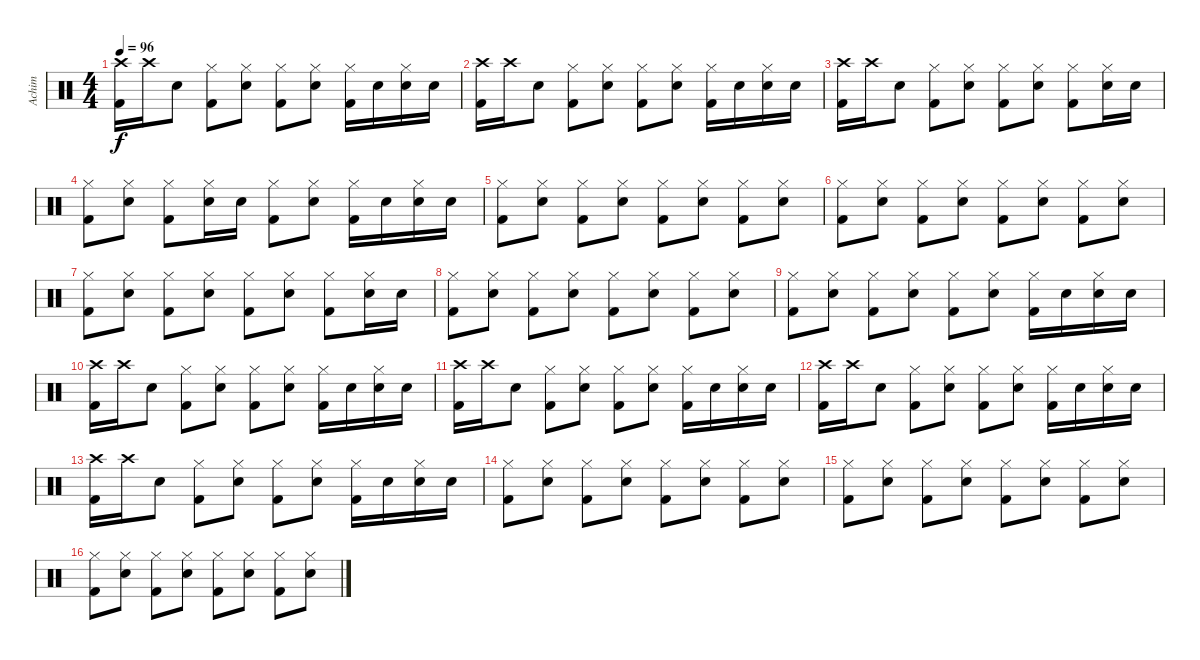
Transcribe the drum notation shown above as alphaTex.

\track ("Achim" "Achim") {instrument percussion}
\staff {score}
\articulation defaults
\ts (4 4)
\tempo 96
\clef neutral
\ks c
("Crash high (hit)" "Kick (hit) 2").16{dy f} "Crash high (hit)".16 "Snare (hit) 2".8 ("Hi-Hat (closed)" "Kick (hit) 2").8 ("Hi-Hat (closed)" "Snare (hit) 2").8 ("Hi-Hat (closed)" "Kick (hit) 2").8 ("Hi-Hat (closed)" "Snare (hit) 2").8 ("Hi-Hat (closed)" "Kick (hit) 2").16 "Snare (hit) 2".16 ("Hi-Hat (closed)" "Snare (hit) 2").16 "Snare (hit) 2".16 |
("Crash high (hit)" "Kick (hit) 2").16 "Crash high (hit)".16 "Snare (hit) 2".8 ("Hi-Hat (closed)" "Kick (hit) 2").8 ("Hi-Hat (closed)" "Snare (hit) 2").8 ("Hi-Hat (closed)" "Kick (hit) 2").8 ("Hi-Hat (closed)" "Snare (hit) 2").8 ("Hi-Hat (closed)" "Kick (hit) 2").16 "Snare (hit) 2".16 ("Hi-Hat (closed)" "Snare (hit) 2").16 "Snare (hit) 2".16 |
("Crash high (hit)" "Kick (hit) 2").16 "Crash high (hit)".16 "Snare (hit) 2".8 ("Hi-Hat (closed)" "Kick (hit) 2").8 ("Hi-Hat (closed)" "Snare (hit) 2").8 ("Hi-Hat (closed)" "Kick (hit) 2").8 ("Hi-Hat (closed)" "Snare (hit) 2").8 ("Hi-Hat (closed)" "Kick (hit) 2").8 ("Hi-Hat (closed)" "Snare (hit) 2").16 "Snare (hit) 2".16 |
("Hi-Hat (closed)" "Kick (hit) 2").8 ("Hi-Hat (closed)" "Snare (hit) 2").8 ("Hi-Hat (closed)" "Kick (hit) 2").8 ("Hi-Hat (closed)" "Snare (hit) 2").16 "Snare (hit) 2".16 ("Hi-Hat (closed)" "Kick (hit) 2").8 ("Hi-Hat (closed)" "Snare (hit) 2").8 ("Hi-Hat (closed)" "Kick (hit) 2").16 "Snare (hit) 2".16 ("Hi-Hat (closed)" "Snare (hit) 2").16 "Snare (hit) 2".16 |
("Hi-Hat (closed)" "Kick (hit) 2").8 ("Hi-Hat (closed)" "Snare (hit) 2").8 ("Hi-Hat (closed)" "Kick (hit) 2").8 ("Hi-Hat (closed)" "Snare (hit) 2").8 ("Hi-Hat (closed)" "Kick (hit) 2").8 ("Hi-Hat (closed)" "Snare (hit) 2").8 ("Hi-Hat (closed)" "Kick (hit) 2").8 ("Hi-Hat (closed)" "Snare (hit) 2").8 |
("Hi-Hat (closed)" "Kick (hit) 2").8 ("Hi-Hat (closed)" "Snare (hit) 2").8 ("Hi-Hat (closed)" "Kick (hit) 2").8 ("Hi-Hat (closed)" "Snare (hit) 2").8 ("Hi-Hat (closed)" "Kick (hit) 2").8 ("Hi-Hat (closed)" "Snare (hit) 2").8 ("Hi-Hat (closed)" "Kick (hit) 2").8 ("Hi-Hat (closed)" "Snare (hit) 2").8 |
("Hi-Hat (closed)" "Kick (hit) 2").8 ("Hi-Hat (closed)" "Snare (hit) 2").8 ("Hi-Hat (closed)" "Kick (hit) 2").8 ("Hi-Hat (closed)" "Snare (hit) 2").8 ("Hi-Hat (closed)" "Kick (hit) 2").8 ("Hi-Hat (closed)" "Snare (hit) 2").8 ("Hi-Hat (closed)" "Kick (hit) 2").8 ("Hi-Hat (closed)" "Snare (hit) 2").16 "Snare (hit) 2".16 |
("Hi-Hat (closed)" "Kick (hit) 2").8 ("Hi-Hat (closed)" "Snare (hit) 2").8 ("Hi-Hat (closed)" "Kick (hit) 2").8 ("Hi-Hat (closed)" "Snare (hit) 2").8 ("Hi-Hat (closed)" "Kick (hit) 2").8 ("Hi-Hat (closed)" "Snare (hit) 2").8 ("Hi-Hat (closed)" "Kick (hit) 2").8 ("Hi-Hat (closed)" "Snare (hit) 2").8 |
("Hi-Hat (closed)" "Kick (hit) 2").8 ("Hi-Hat (closed)" "Snare (hit) 2").8 ("Hi-Hat (closed)" "Kick (hit) 2").8 ("Hi-Hat (closed)" "Snare (hit) 2").8 ("Hi-Hat (closed)" "Kick (hit) 2").8 ("Hi-Hat (closed)" "Snare (hit) 2").8 ("Hi-Hat (closed)" "Kick (hit) 2").16 "Snare (hit) 2".16 ("Hi-Hat (closed)" "Snare (hit) 2").16 "Snare (hit) 2".16 |
("Crash high (hit)" "Kick (hit) 2").16 "Crash high (hit)".16 "Snare (hit) 2".8 ("Hi-Hat (closed)" "Kick (hit) 2").8 ("Hi-Hat (closed)" "Snare (hit) 2").8 ("Hi-Hat (closed)" "Kick (hit) 2").8 ("Hi-Hat (closed)" "Snare (hit) 2").8 ("Hi-Hat (closed)" "Kick (hit) 2").16 "Snare (hit) 2".16 ("Hi-Hat (closed)" "Snare (hit) 2").16 "Snare (hit) 2".16 |
("Crash high (hit)" "Kick (hit) 2").16 "Crash high (hit)".16 "Snare (hit) 2".8 ("Hi-Hat (closed)" "Kick (hit) 2").8 ("Hi-Hat (closed)" "Snare (hit) 2").8 ("Hi-Hat (closed)" "Kick (hit) 2").8 ("Hi-Hat (closed)" "Snare (hit) 2").8 ("Hi-Hat (closed)" "Kick (hit) 2").16 "Snare (hit) 2".16 ("Hi-Hat (closed)" "Snare (hit) 2").16 "Snare (hit) 2".16 |
("Crash high (hit)" "Kick (hit) 2").16 "Crash high (hit)".16 "Snare (hit) 2".8 ("Hi-Hat (closed)" "Kick (hit) 2").8 ("Hi-Hat (closed)" "Snare (hit) 2").8 ("Hi-Hat (closed)" "Kick (hit) 2").8 ("Hi-Hat (closed)" "Snare (hit) 2").8 ("Hi-Hat (closed)" "Kick (hit) 2").16 "Snare (hit) 2".16 ("Hi-Hat (closed)" "Snare (hit) 2").16 "Snare (hit) 2".16 |
("Crash high (hit)" "Kick (hit) 2").16 "Crash high (hit)".16 "Snare (hit) 2".8 ("Hi-Hat (closed)" "Kick (hit) 2").8 ("Hi-Hat (closed)" "Snare (hit) 2").8 ("Hi-Hat (closed)" "Kick (hit) 2").8 ("Hi-Hat (closed)" "Snare (hit) 2").8 ("Hi-Hat (closed)" "Kick (hit) 2").16 "Snare (hit) 2".16 ("Hi-Hat (closed)" "Snare (hit) 2").16 "Snare (hit) 2".16 |
("Hi-Hat (closed)" "Kick (hit) 2").8 ("Hi-Hat (closed)" "Snare (hit) 2").8 ("Hi-Hat (closed)" "Kick (hit) 2").8 ("Hi-Hat (closed)" "Snare (hit) 2").8 ("Hi-Hat (closed)" "Kick (hit) 2").8 ("Hi-Hat (closed)" "Snare (hit) 2").8 ("Hi-Hat (closed)" "Kick (hit) 2").8 ("Hi-Hat (closed)" "Snare (hit) 2").8 |
("Hi-Hat (closed)" "Kick (hit) 2").8 ("Hi-Hat (closed)" "Snare (hit) 2").8 ("Hi-Hat (closed)" "Kick (hit) 2").8 ("Hi-Hat (closed)" "Snare (hit) 2").8 ("Hi-Hat (closed)" "Kick (hit) 2").8 ("Hi-Hat (closed)" "Snare (hit) 2").8 ("Hi-Hat (closed)" "Kick (hit) 2").8 ("Hi-Hat (closed)" "Snare (hit) 2").8 |
("Hi-Hat (closed)" "Kick (hit) 2").8 ("Hi-Hat (closed)" "Snare (hit) 2").8 ("Hi-Hat (closed)" "Kick (hit) 2").8 ("Hi-Hat (closed)" "Snare (hit) 2").8 ("Hi-Hat (closed)" "Kick (hit) 2").8 ("Hi-Hat (closed)" "Snare (hit) 2").8 ("Hi-Hat (closed)" "Kick (hit) 2").8 ("Hi-Hat (closed)" "Snare (hit) 2").8
